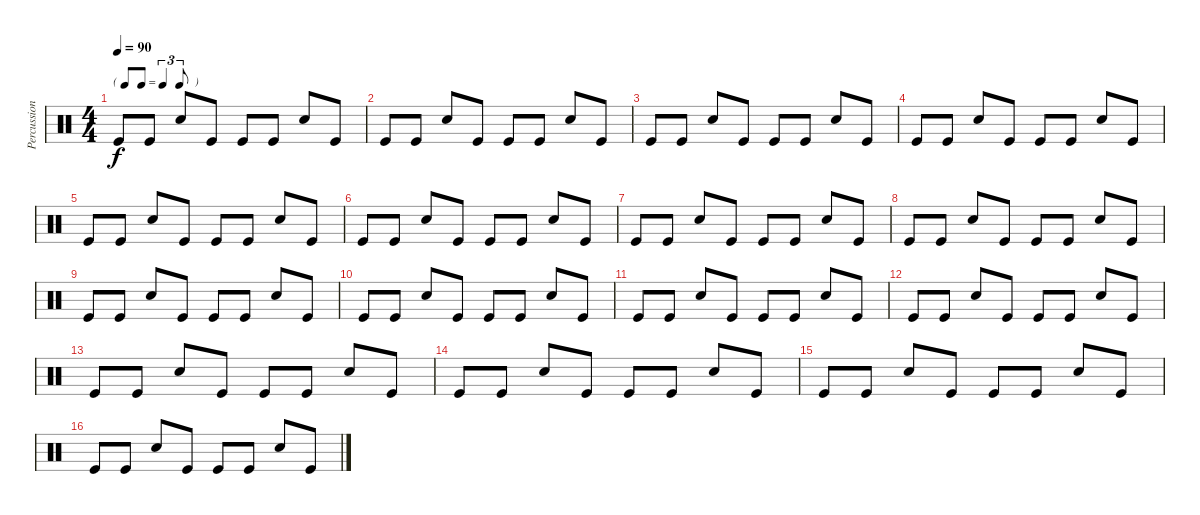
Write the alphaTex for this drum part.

\track ("Percussion" "Percussion") {instrument percussion}
\staff {score}
\articulation defaults
\ts (4 4)
\tf triplet8th
\tempo 90
\clef neutral
\ks c "Kick (hit)".8{dy f} "Kick (hit)".8 "Snare (hit) 2".8 "Kick (hit)".8 "Kick (hit)".8 "Kick (hit)".8 "Snare (hit) 2".8 "Kick (hit)".8
|
"Kick (hit)".8 "Kick (hit)".8 "Snare (hit) 2".8 "Kick (hit)".8 "Kick (hit)".8 "Kick (hit)".8 "Snare (hit) 2".8 "Kick (hit)".8 |
"Kick (hit)".8 "Kick (hit)".8 "Snare (hit) 2".8 "Kick (hit)".8 "Kick (hit)".8 "Kick (hit)".8 "Snare (hit) 2".8 "Kick (hit)".8 |
"Kick (hit)".8 "Kick (hit)".8 "Snare (hit) 2".8 "Kick (hit)".8 "Kick (hit)".8 "Kick (hit)".8 "Snare (hit) 2".8 "Kick (hit)".8 |
"Kick (hit)".8 "Kick (hit)".8 "Snare (hit) 2".8 "Kick (hit)".8 "Kick (hit)".8 "Kick (hit)".8 "Snare (hit) 2".8 "Kick (hit)".8 |
"Kick (hit)".8 "Kick (hit)".8 "Snare (hit) 2".8 "Kick (hit)".8 "Kick (hit)".8 "Kick (hit)".8 "Snare (hit) 2".8 "Kick (hit)".8 |
"Kick (hit)".8 "Kick (hit)".8 "Snare (hit) 2".8 "Kick (hit)".8 "Kick (hit)".8 "Kick (hit)".8 "Snare (hit) 2".8 "Kick (hit)".8 |
"Kick (hit)".8 "Kick (hit)".8 "Snare (hit) 2".8 "Kick (hit)".8 "Kick (hit)".8 "Kick (hit)".8 "Snare (hit) 2".8 "Kick (hit)".8 |
"Kick (hit)".8 "Kick (hit)".8 "Snare (hit) 2".8 "Kick (hit)".8 "Kick (hit)".8 "Kick (hit)".8 "Snare (hit) 2".8 "Kick (hit)".8 |
"Kick (hit)".8 "Kick (hit)".8 "Snare (hit) 2".8 "Kick (hit)".8 "Kick (hit)".8 "Kick (hit)".8 "Snare (hit) 2".8 "Kick (hit)".8 |
"Kick (hit)".8 "Kick (hit)".8 "Snare (hit) 2".8 "Kick (hit)".8 "Kick (hit)".8 "Kick (hit)".8 "Snare (hit) 2".8 "Kick (hit)".8 |
"Kick (hit)".8 "Kick (hit)".8 "Snare (hit) 2".8 "Kick (hit)".8 "Kick (hit)".8 "Kick (hit)".8 "Snare (hit) 2".8 "Kick (hit)".8 |
"Kick (hit)".8 "Kick (hit)".8 "Snare (hit) 2".8 "Kick (hit)".8 "Kick (hit)".8 "Kick (hit)".8 "Snare (hit) 2".8 "Kick (hit)".8 |
"Kick (hit)".8 "Kick (hit)".8 "Snare (hit) 2".8 "Kick (hit)".8 "Kick (hit)".8 "Kick (hit)".8 "Snare (hit) 2".8 "Kick (hit)".8 |
"Kick (hit)".8 "Kick (hit)".8 "Snare (hit) 2".8{volume 0} "Kick (hit)".8 "Kick (hit)".8 "Kick (hit)".8 "Snare (hit) 2".8 "Kick (hit)".8 |
"Kick (hit)".8 "Kick (hit)".8 "Snare (hit) 2".8 "Kick (hit)".8 "Kick (hit)".8 "Kick (hit)".8 "Snare (hit) 2".8 "Kick (hit)".8
